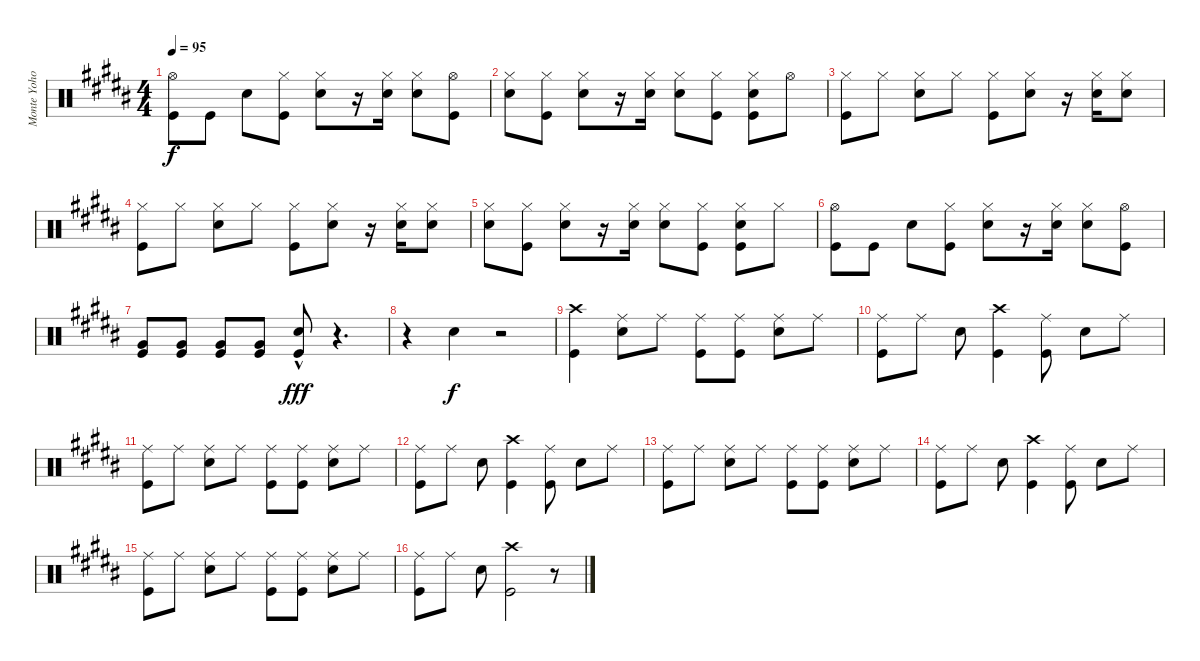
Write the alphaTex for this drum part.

\track ("Monte Yoho Drums" "Monte Yoho") {instrument percussion}
\staff {score}
\articulation defaults
\ts (4 4)
\tempo 95
\clef neutral
\ks g#minor
("Hi-Hat (open)" "Kick (hit)").8{dy f} "Kick (hit)".8 "Snare (hit) 2".8 ("Hi-Hat (closed)" "Kick (hit)").8 ("Hi-Hat (closed)" "Snare (hit) 2").8 r.16 ("Hi-Hat (closed)" "Snare (hit) 2").16 ("Hi-Hat (closed)" "Snare (hit) 2").8 ("Hi-Hat (open)" "Kick (hit)").8 |
("Hi-Hat (closed)" "Snare (hit) 2").8 ("Hi-Hat (closed)" "Kick (hit)").8 ("Hi-Hat (closed)" "Snare (hit) 2").8 r.16 ("Hi-Hat (closed)" "Snare (hit) 2").16 ("Hi-Hat (closed)" "Snare (hit) 2").8 ("Hi-Hat (closed)" "Kick (hit)").8 ("Hi-Hat (closed)" "Snare (hit) 2" "Kick (hit)").8 "Hi-Hat (open)".8 |
("Hi-Hat (closed)" "Kick (hit)").8 "Hi-Hat (closed)".8 ("Hi-Hat (closed)" "Snare (hit) 2").8 "Hi-Hat (closed)".8 ("Hi-Hat (closed)" "Kick (hit)").8 ("Hi-Hat (closed)" "Snare (hit) 2").8 r.16 ("Hi-Hat (closed)" "Snare (hit) 2").16 ("Hi-Hat (closed)" "Snare (hit) 2").8 |
("Hi-Hat (closed)" "Kick (hit)").8 "Hi-Hat (closed)".8 ("Hi-Hat (closed)" "Snare (hit) 2").8 "Hi-Hat (closed)".8 ("Hi-Hat (closed)" "Kick (hit)").8 ("Hi-Hat (closed)" "Snare (hit) 2").8 r.16 ("Hi-Hat (closed)" "Snare (hit) 2").16 ("Hi-Hat (closed)" "Snare (hit) 2").8 |
("Hi-Hat (closed)" "Snare (hit) 2").8 ("Hi-Hat (closed)" "Kick (hit)").8 ("Hi-Hat (closed)" "Snare (hit) 2").8 r.16 ("Hi-Hat (closed)" "Snare (hit) 2").16 ("Hi-Hat (closed)" "Snare (hit) 2").8 ("Hi-Hat (closed)" "Kick (hit)").8 ("Hi-Hat (closed)" "Snare (hit) 2" "Kick (hit)").8 "Hi-Hat (closed)".8 |
("Hi-Hat (open)" "Kick (hit)").8 "Kick (hit)".8 "Snare (hit) 2".8 ("Hi-Hat (closed)" "Kick (hit)").8 ("Hi-Hat (closed)" "Snare (hit) 2").8 r.16 ("Hi-Hat (closed)" "Snare (hit) 2").16 ("Hi-Hat (closed)" "Snare (hit) 2").8 ("Hi-Hat (open)" "Kick (hit)").8 |
("Very Low Tom (hit)" "Kick (hit)").8{volume 12} ("Very Low Tom (hit)" "Kick (hit)").8 ("Very Low Tom (hit)" "Kick (hit)").8 ("Very Low Tom (hit)" "Kick (hit)").8 ("Snare (hit) 2"{hac} "Kick (hit)").8{dy fff} r.4{d} |
r.4 "Snare (hit) 2".4{dy f} r.2 |
("Crash high (hit)" "Kick (hit)").4{volume 13} ("Ride (middle)" "Snare (hit) 2").8 "Ride (middle)".8 ("Ride (middle)" "Kick (hit)").8 ("Ride (middle)" "Kick (hit)").8 ("Ride (middle)" "Snare (hit) 2").8 "Ride (middle)".8 |
("Ride (middle)" "Kick (hit)").8 "Ride (middle)".8 "Snare (hit) 2".8 ("Crash high (hit)" "Kick (hit)").4 ("Ride (middle)" "Kick (hit)").8 "Snare (hit) 2".8 "Ride (middle)".8 |
("Ride (middle)" "Kick (hit)").8 "Ride (middle)".8 ("Ride (middle)" "Snare (hit) 2").8 "Ride (middle)".8 ("Ride (middle)" "Kick (hit)").8 ("Ride (middle)" "Kick (hit)").8 ("Ride (middle)" "Snare (hit) 2").8 "Ride (middle)".8 |
("Ride (middle)" "Kick (hit)").8 "Ride (middle)".8 "Snare (hit) 2".8 ("Crash high (hit)" "Kick (hit)").4 ("Ride (middle)" "Kick (hit)").8 "Snare (hit) 2".8 "Ride (middle)".8 |
("Ride (middle)" "Kick (hit)").8 "Ride (middle)".8 ("Ride (middle)" "Snare (hit) 2").8 "Ride (middle)".8 ("Ride (middle)" "Kick (hit)").8 ("Ride (middle)" "Kick (hit)").8 ("Ride (middle)" "Snare (hit) 2").8 "Ride (middle)".8 |
("Ride (middle)" "Kick (hit)").8 "Ride (middle)".8 "Snare (hit) 2".8 ("Crash high (hit)" "Kick (hit)").4 ("Ride (middle)" "Kick (hit)").8 "Snare (hit) 2".8 "Ride (middle)".8 |
("Ride (middle)" "Kick (hit)").8 "Ride (middle)".8 ("Ride (middle)" "Snare (hit) 2").8 "Ride (middle)".8 ("Ride (middle)" "Kick (hit)").8 ("Ride (middle)" "Kick (hit)").8 ("Ride (middle)" "Snare (hit) 2").8 "Ride (middle)".8 |
("Ride (middle)" "Kick (hit)").8 "Ride (middle)".8 "Snare (hit) 2".8 ("Crash high (hit)" "Kick (hit)").2 r.8
